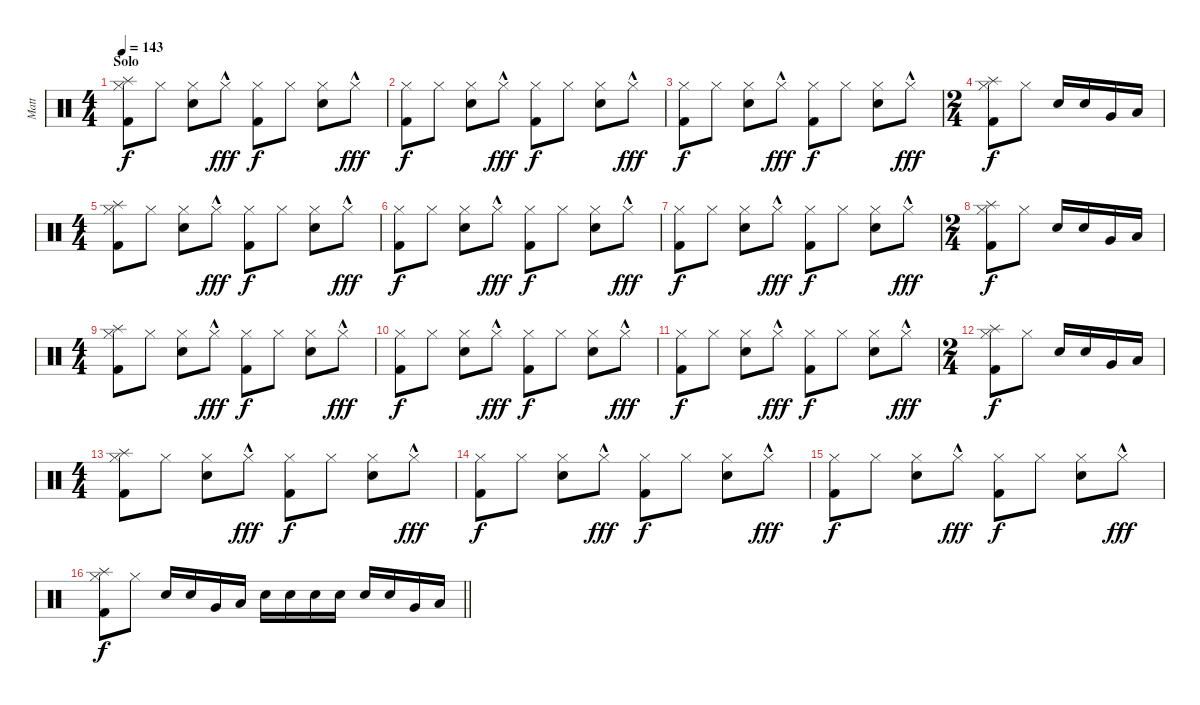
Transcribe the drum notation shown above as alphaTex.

\track ("Matt" "Matt") {instrument percussion}
\staff {score}
\articulation defaults
\ts (4 4)
\section ("" "Solo")
\tempo 143
\clef neutral
\ks c
("Splash (hit)" "Hi-Hat (closed)" "Kick (hit) 2").8{dy f} "Hi-Hat (closed)".8 ("Hi-Hat (closed)" "Snare (hit) 2").8 "Hi-Hat (closed)"{hac}.8{dy fff} ("Hi-Hat (closed)" "Kick (hit) 2").8{dy f} "Hi-Hat (closed)".8 ("Hi-Hat (closed)" "Snare (hit) 2").8 "Hi-Hat (closed)"{hac}.8{dy fff} |
("Hi-Hat (closed)" "Kick (hit) 2").8{dy f} "Hi-Hat (closed)".8 ("Hi-Hat (closed)" "Snare (hit) 2").8 "Hi-Hat (closed)"{hac}.8{dy fff} ("Hi-Hat (closed)" "Kick (hit) 2").8{dy f} "Hi-Hat (closed)".8 ("Hi-Hat (closed)" "Snare (hit) 2").8 "Hi-Hat (closed)"{hac}.8{dy fff} |
("Hi-Hat (closed)" "Kick (hit) 2").8{dy f} "Hi-Hat (closed)".8 ("Hi-Hat (closed)" "Snare (hit) 2").8 "Hi-Hat (closed)"{hac}.8{dy fff} ("Hi-Hat (closed)" "Kick (hit) 2").8{dy f} "Hi-Hat (closed)".8 ("Hi-Hat (closed)" "Snare (hit) 2").8 "Hi-Hat (closed)"{hac}.8{dy fff} |
\ts (2 4)
("Splash (hit)" "Hi-Hat (closed)" "Kick (hit) 2").8{dy f} "Hi-Hat (closed)".8 "Snare (hit) 2".16 "Snare (hit) 2".16 "Very Low Tom (hit)".16 "Low Floor Tom (hit)".16 |
\ts (4 4)
("Splash (hit)" "Hi-Hat (closed)" "Kick (hit) 2").8 "Hi-Hat (closed)".8 ("Hi-Hat (closed)" "Snare (hit) 2").8 "Hi-Hat (closed)"{hac}.8{dy fff} ("Hi-Hat (closed)" "Kick (hit) 2").8{dy f} "Hi-Hat (closed)".8 ("Hi-Hat (closed)" "Snare (hit) 2").8 "Hi-Hat (closed)"{hac}.8{dy fff} |
("Hi-Hat (closed)" "Kick (hit) 2").8{dy f} "Hi-Hat (closed)".8 ("Hi-Hat (closed)" "Snare (hit) 2").8 "Hi-Hat (closed)"{hac}.8{dy fff} ("Hi-Hat (closed)" "Kick (hit) 2").8{dy f} "Hi-Hat (closed)".8 ("Hi-Hat (closed)" "Snare (hit) 2").8 "Hi-Hat (closed)"{hac}.8{dy fff} |
("Hi-Hat (closed)" "Kick (hit) 2").8{dy f} "Hi-Hat (closed)".8 ("Hi-Hat (closed)" "Snare (hit) 2").8 "Hi-Hat (closed)"{hac}.8{dy fff} ("Hi-Hat (closed)" "Kick (hit) 2").8{dy f} "Hi-Hat (closed)".8 ("Hi-Hat (closed)" "Snare (hit) 2").8 "Hi-Hat (closed)"{hac}.8{dy fff} |
\ts (2 4)
("Splash (hit)" "Hi-Hat (closed)" "Kick (hit) 2").8{dy f} "Hi-Hat (closed)".8 "Snare (hit) 2".16 "Snare (hit) 2".16 "Very Low Tom (hit)".16 "Low Floor Tom (hit)".16 |
\ts (4 4)
("Splash (hit)" "Hi-Hat (closed)" "Kick (hit) 2").8 "Hi-Hat (closed)".8 ("Hi-Hat (closed)" "Snare (hit) 2").8 "Hi-Hat (closed)"{hac}.8{dy fff} ("Hi-Hat (closed)" "Kick (hit) 2").8{dy f} "Hi-Hat (closed)".8 ("Hi-Hat (closed)" "Snare (hit) 2").8 "Hi-Hat (closed)"{hac}.8{dy fff} |
("Hi-Hat (closed)" "Kick (hit) 2").8{dy f} "Hi-Hat (closed)".8 ("Hi-Hat (closed)" "Snare (hit) 2").8 "Hi-Hat (closed)"{hac}.8{dy fff} ("Hi-Hat (closed)" "Kick (hit) 2").8{dy f} "Hi-Hat (closed)".8 ("Hi-Hat (closed)" "Snare (hit) 2").8 "Hi-Hat (closed)"{hac}.8{dy fff} |
("Hi-Hat (closed)" "Kick (hit) 2").8{dy f} "Hi-Hat (closed)".8 ("Hi-Hat (closed)" "Snare (hit) 2").8 "Hi-Hat (closed)"{hac}.8{dy fff} ("Hi-Hat (closed)" "Kick (hit) 2").8{dy f} "Hi-Hat (closed)".8 ("Hi-Hat (closed)" "Snare (hit) 2").8 "Hi-Hat (closed)"{hac}.8{dy fff} |
\ts (2 4)
("Splash (hit)" "Hi-Hat (closed)" "Kick (hit) 2").8{dy f} "Hi-Hat (closed)".8 "Snare (hit) 2".16 "Snare (hit) 2".16 "Very Low Tom (hit)".16 "Low Floor Tom (hit)".16 |
\ts (4 4)
("Splash (hit)" "Hi-Hat (closed)" "Kick (hit) 2").8 "Hi-Hat (closed)".8 ("Hi-Hat (closed)" "Snare (hit) 2").8 "Hi-Hat (closed)"{hac}.8{dy fff} ("Hi-Hat (closed)" "Kick (hit) 2").8{dy f} "Hi-Hat (closed)".8 ("Hi-Hat (closed)" "Snare (hit) 2").8 "Hi-Hat (closed)"{hac}.8{dy fff} |
("Hi-Hat (closed)" "Kick (hit) 2").8{dy f} "Hi-Hat (closed)".8 ("Hi-Hat (closed)" "Snare (hit) 2").8 "Hi-Hat (closed)"{hac}.8{dy fff} ("Hi-Hat (closed)" "Kick (hit) 2").8{dy f} "Hi-Hat (closed)".8 ("Hi-Hat (closed)" "Snare (hit) 2").8 "Hi-Hat (closed)"{hac}.8{dy fff} |
("Hi-Hat (closed)" "Kick (hit) 2").8{dy f} "Hi-Hat (closed)".8 ("Hi-Hat (closed)" "Snare (hit) 2").8 "Hi-Hat (closed)"{hac}.8{dy fff} ("Hi-Hat (closed)" "Kick (hit) 2").8{dy f} "Hi-Hat (closed)".8 ("Hi-Hat (closed)" "Snare (hit) 2").8 "Hi-Hat (closed)"{hac}.8{dy fff} |
\barLineRight lightlight
("Splash (hit)" "Hi-Hat (closed)" "Kick (hit) 2").8{dy f} "Hi-Hat (closed)".8 "Snare (hit) 2".16 "Snare (hit) 2".16 "Very Low Tom (hit)".16 "Low Floor Tom (hit)".16 "Snare (hit) 2".16 "Snare (hit) 2".16 "Snare (hit) 2".16 "Snare (hit) 2".16 "Snare (hit) 2".16 "Snare (hit) 2".16 "Very Low Tom (hit)".16 "Low Floor Tom (hit)".16
